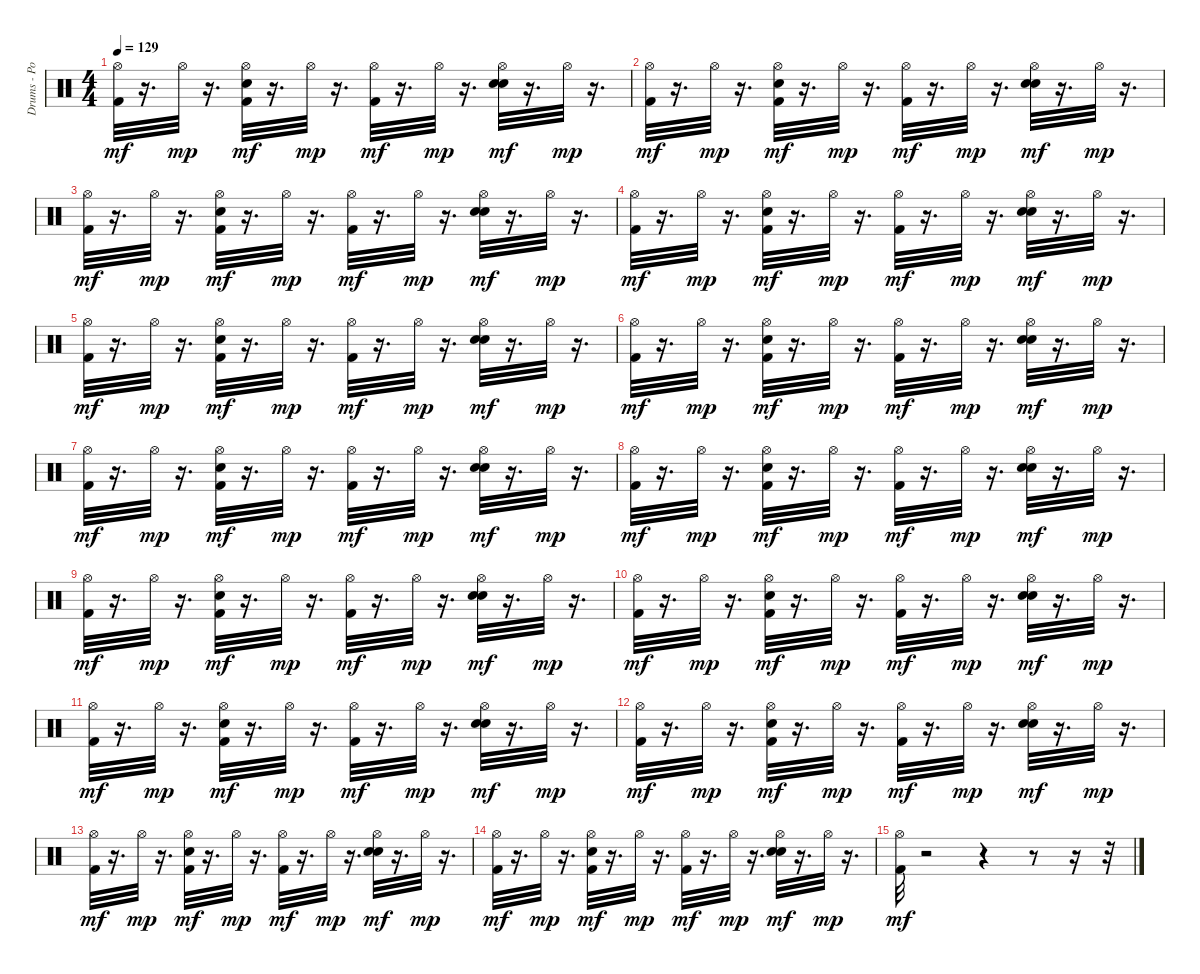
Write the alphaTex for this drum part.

\track ("Drums - Po" "Drums - Po") {instrument percussion}
\staff {score}
\articulation defaults
\ts (4 4)
\tempo 129
\clef neutral
\ks c
("Kick (hit) 2" "Hi-Hat (open)").32{dy mf} r.16{d} "Hi-Hat (open)".32{dy mp} r.16{d} ("Kick (hit) 2" "Snare (hit) 2" "Hi-Hat (open)").32{dy mf} r.16{d} "Hi-Hat (open)".32{dy mp} r.16{d} ("Kick (hit) 2" "Hi-Hat (open)").32{dy mf} r.16{d} "Hi-Hat (open)".32{dy mp} r.16{d} ("Snare (hit) 2" "Hand Clap (hit)" "Hi-Hat (open)").32{dy mf} r.16{d} "Hi-Hat (open)".32{dy mp} r.16{d} |
("Kick (hit) 2" "Hi-Hat (open)").32{dy mf} r.16{d} "Hi-Hat (open)".32{dy mp} r.16{d} ("Kick (hit) 2" "Snare (hit) 2" "Hi-Hat (open)").32{dy mf} r.16{d} "Hi-Hat (open)".32{dy mp} r.16{d} ("Kick (hit) 2" "Hi-Hat (open)").32{dy mf} r.16{d} "Hi-Hat (open)".32{dy mp} r.16{d} ("Snare (hit) 2" "Hand Clap (hit)" "Hi-Hat (open)").32{dy mf} r.16{d} "Hi-Hat (open)".32{dy mp} r.16{d} |
("Kick (hit) 2" "Hi-Hat (open)").32{dy mf} r.16{d} "Hi-Hat (open)".32{dy mp} r.16{d} ("Kick (hit) 2" "Snare (hit) 2" "Hi-Hat (open)").32{dy mf} r.16{d} "Hi-Hat (open)".32{dy mp} r.16{d} ("Kick (hit) 2" "Hi-Hat (open)").32{dy mf} r.16{d} "Hi-Hat (open)".32{dy mp} r.16{d} ("Snare (hit) 2" "Hand Clap (hit)" "Hi-Hat (open)").32{dy mf} r.16{d} "Hi-Hat (open)".32{dy mp} r.16{d} |
("Kick (hit) 2" "Hi-Hat (open)").32{dy mf} r.16{d} "Hi-Hat (open)".32{dy mp} r.16{d} ("Kick (hit) 2" "Snare (hit) 2" "Hi-Hat (open)").32{dy mf} r.16{d} "Hi-Hat (open)".32{dy mp} r.16{d} ("Kick (hit) 2" "Hi-Hat (open)").32{dy mf} r.16{d} "Hi-Hat (open)".32{dy mp} r.16{d} ("Snare (hit) 2" "Hand Clap (hit)" "Hi-Hat (open)").32{dy mf} r.16{d} "Hi-Hat (open)".32{dy mp} r.16{d} |
("Kick (hit) 2" "Hi-Hat (open)").32{dy mf} r.16{d} "Hi-Hat (open)".32{dy mp} r.16{d} ("Kick (hit) 2" "Snare (hit) 2" "Hi-Hat (open)").32{dy mf} r.16{d} "Hi-Hat (open)".32{dy mp} r.16{d} ("Kick (hit) 2" "Hi-Hat (open)").32{dy mf} r.16{d} "Hi-Hat (open)".32{dy mp} r.16{d} ("Snare (hit) 2" "Hand Clap (hit)" "Hi-Hat (open)").32{dy mf} r.16{d} "Hi-Hat (open)".32{dy mp} r.16{d} |
("Kick (hit) 2" "Hi-Hat (open)").32{dy mf} r.16{d} "Hi-Hat (open)".32{dy mp} r.16{d} ("Kick (hit) 2" "Snare (hit) 2" "Hi-Hat (open)").32{dy mf} r.16{d} "Hi-Hat (open)".32{dy mp} r.16{d} ("Kick (hit) 2" "Hi-Hat (open)").32{dy mf} r.16{d} "Hi-Hat (open)".32{dy mp} r.16{d} ("Snare (hit) 2" "Hand Clap (hit)" "Hi-Hat (open)").32{dy mf} r.16{d} "Hi-Hat (open)".32{dy mp} r.16{d} |
("Kick (hit) 2" "Hi-Hat (open)").32{dy mf} r.16{d} "Hi-Hat (open)".32{dy mp} r.16{d} ("Kick (hit) 2" "Snare (hit) 2" "Hi-Hat (open)").32{dy mf} r.16{d} "Hi-Hat (open)".32{dy mp} r.16{d} ("Kick (hit) 2" "Hi-Hat (open)").32{dy mf} r.16{d} "Hi-Hat (open)".32{dy mp} r.16{d} ("Snare (hit) 2" "Hand Clap (hit)" "Hi-Hat (open)").32{dy mf} r.16{d} "Hi-Hat (open)".32{dy mp} r.16{d} |
("Kick (hit) 2" "Hi-Hat (open)").32{dy mf} r.16{d} "Hi-Hat (open)".32{dy mp} r.16{d} ("Kick (hit) 2" "Snare (hit) 2" "Hi-Hat (open)").32{dy mf} r.16{d} "Hi-Hat (open)".32{dy mp} r.16{d} ("Kick (hit) 2" "Hi-Hat (open)").32{dy mf} r.16{d} "Hi-Hat (open)".32{dy mp} r.16{d} ("Snare (hit) 2" "Hand Clap (hit)" "Hi-Hat (open)").32{dy mf} r.16{d} "Hi-Hat (open)".32{dy mp} r.16{d} |
("Kick (hit) 2" "Hi-Hat (open)").32{dy mf} r.16{d} "Hi-Hat (open)".32{dy mp} r.16{d} ("Kick (hit) 2" "Snare (hit) 2" "Hi-Hat (open)").32{dy mf} r.16{d} "Hi-Hat (open)".32{dy mp} r.16{d} ("Kick (hit) 2" "Hi-Hat (open)").32{dy mf} r.16{d} "Hi-Hat (open)".32{dy mp} r.16{d} ("Snare (hit) 2" "Hand Clap (hit)" "Hi-Hat (open)").32{dy mf} r.16{d} "Hi-Hat (open)".32{dy mp} r.16{d} |
("Kick (hit) 2" "Hi-Hat (open)").32{dy mf} r.16{d} "Hi-Hat (open)".32{dy mp} r.16{d} ("Kick (hit) 2" "Snare (hit) 2" "Hi-Hat (open)").32{dy mf} r.16{d} "Hi-Hat (open)".32{dy mp} r.16{d} ("Kick (hit) 2" "Hi-Hat (open)").32{dy mf} r.16{d} "Hi-Hat (open)".32{dy mp} r.16{d} ("Snare (hit) 2" "Hand Clap (hit)" "Hi-Hat (open)").32{dy mf} r.16{d} "Hi-Hat (open)".32{dy mp} r.16{d} |
("Kick (hit) 2" "Hi-Hat (open)").32{dy mf} r.16{d} "Hi-Hat (open)".32{dy mp} r.16{d} ("Kick (hit) 2" "Snare (hit) 2" "Hi-Hat (open)").32{dy mf} r.16{d} "Hi-Hat (open)".32{dy mp} r.16{d} ("Kick (hit) 2" "Hi-Hat (open)").32{dy mf} r.16{d} "Hi-Hat (open)".32{dy mp} r.16{d} ("Snare (hit) 2" "Hand Clap (hit)" "Hi-Hat (open)").32{dy mf} r.16{d} "Hi-Hat (open)".32{dy mp} r.16{d} |
("Kick (hit) 2" "Hi-Hat (open)").32{dy mf} r.16{d} "Hi-Hat (open)".32{dy mp} r.16{d} ("Kick (hit) 2" "Snare (hit) 2" "Hi-Hat (open)").32{dy mf} r.16{d} "Hi-Hat (open)".32{dy mp} r.16{d} ("Kick (hit) 2" "Hi-Hat (open)").32{dy mf} r.16{d} "Hi-Hat (open)".32{dy mp} r.16{d} ("Snare (hit) 2" "Hand Clap (hit)" "Hi-Hat (open)").32{dy mf} r.16{d} "Hi-Hat (open)".32{dy mp} r.16{d} |
("Kick (hit) 2" "Hi-Hat (open)").32{dy mf} r.16{d} "Hi-Hat (open)".32{dy mp} r.16{d} ("Kick (hit) 2" "Snare (hit) 2" "Hi-Hat (open)").32{dy mf} r.16{d} "Hi-Hat (open)".32{dy mp} r.16{d} ("Kick (hit) 2" "Hi-Hat (open)").32{dy mf} r.16{d} "Hi-Hat (open)".32{dy mp} r.16{d} ("Snare (hit) 2" "Hand Clap (hit)" "Hi-Hat (open)").32{dy mf} r.16{d} "Hi-Hat (open)".32{dy mp} r.16{d} |
("Kick (hit) 2" "Hi-Hat (open)").32{dy mf} r.16{d} "Hi-Hat (open)".32{dy mp} r.16{d} ("Kick (hit) 2" "Snare (hit) 2" "Hi-Hat (open)").32{dy mf} r.16{d} "Hi-Hat (open)".32{dy mp} r.16{d} ("Kick (hit) 2" "Hi-Hat (open)").32{dy mf} r.16{d} "Hi-Hat (open)".32{dy mp} r.16{d} ("Snare (hit) 2" "Hand Clap (hit)" "Hi-Hat (open)").32{dy mf} r.16{d} "Hi-Hat (open)".32{dy mp} r.16{d} |
("Kick (hit) 2" "Hi-Hat (open)").32{dy mf} r.2 r.4 r.8 r.16 r.32
